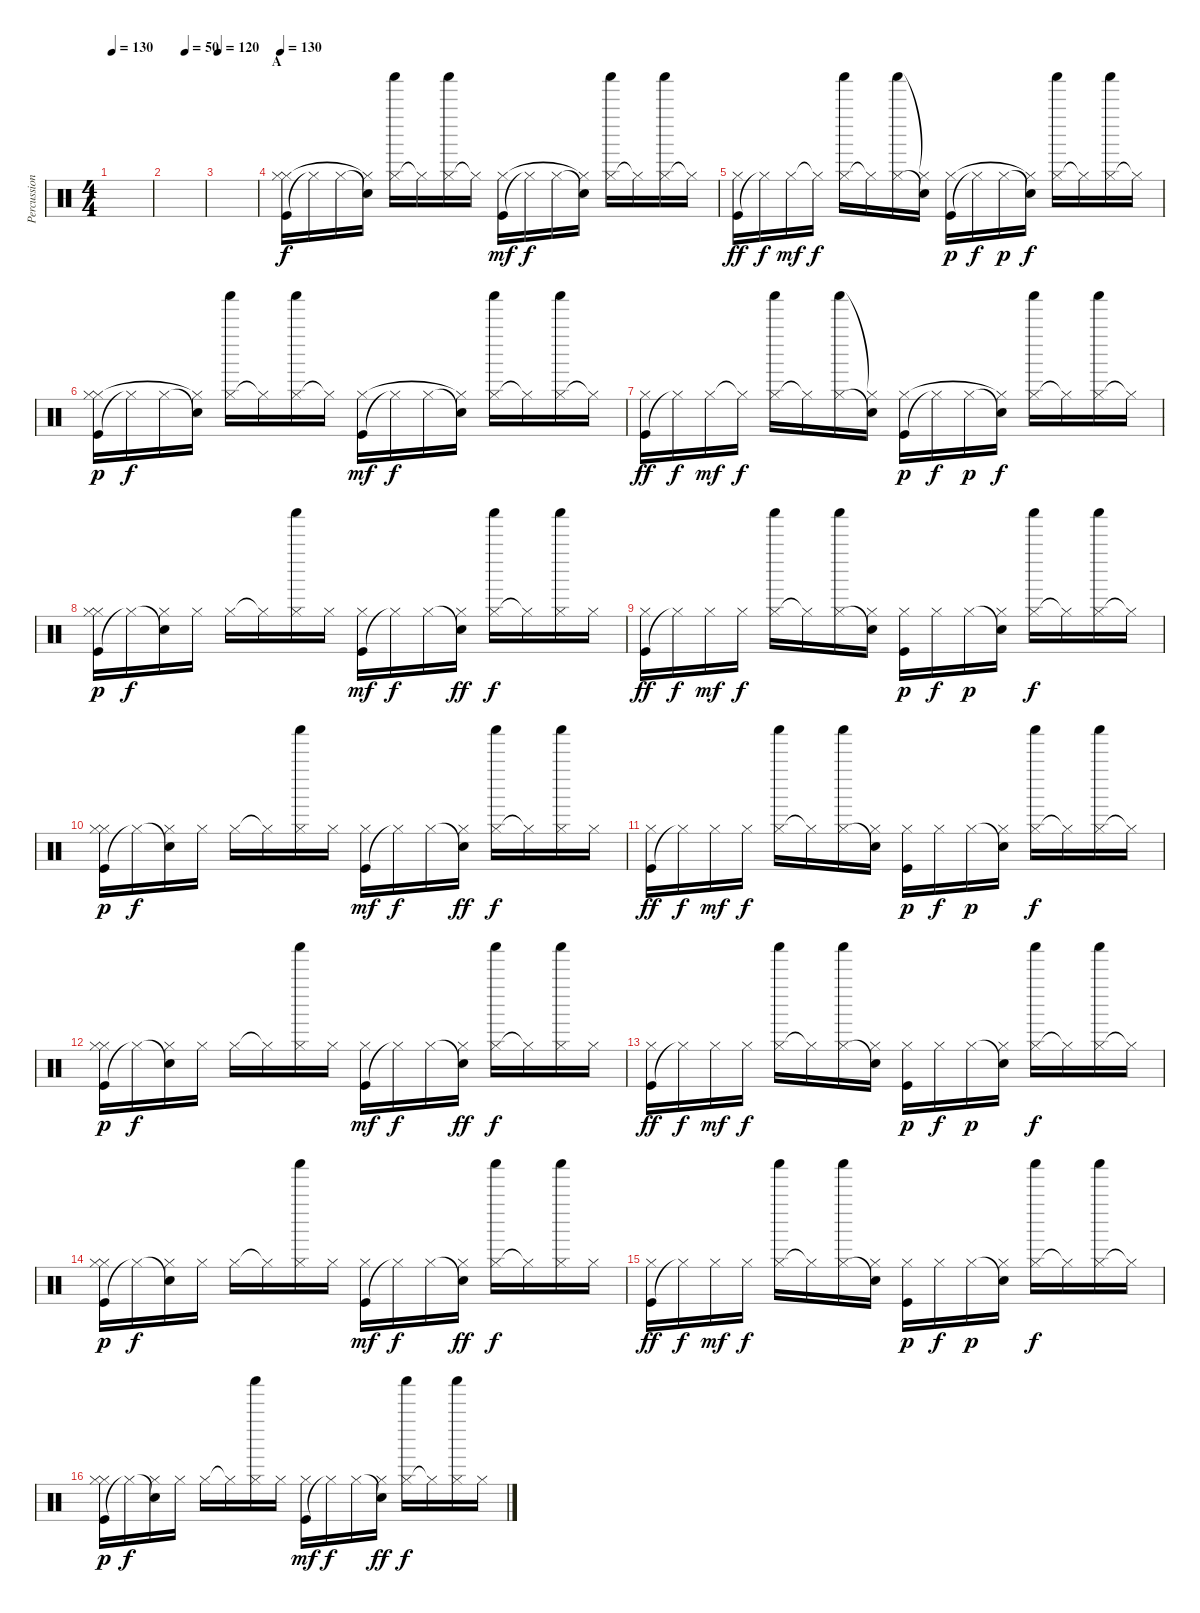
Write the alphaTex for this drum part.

\track ("Percussion" "Percussion") {instrument percussion}
\staff {score}
\articulation defaults
\ts (4 4)
\tempo 130
\tempo 120
\tempo 130
\clef neutral
\ks c
|
\tempo (50 0.5)
|
\tempo 120
|
\section ("" "A")
\tempo 130
("Kick (hit)" "Hi-Hat (closed)" "Hi-Hat (closed)").16 "Hi-Hat (closed)"{t}.16{dy f} "Hi-Hat (closed)".16 ("Snare (hit)"{t} "Hi-Hat (closed)"{t}).16 ("Hi-Hat (closed)" "Shaker (hit)").16 "Hi-Hat (closed)"{t}.16 ("Hi-Hat (closed)" "Shaker (hit)").16 "Hi-Hat (closed)"{t}.16 ("Kick (hit)" "Hi-Hat (closed)").16{dy mf} "Hi-Hat (closed)"{t}.16{dy f} "Hi-Hat (closed)".16 ("Snare (hit)"{t} "Hi-Hat (closed)"{t}).16 ("Hi-Hat (closed)" "Shaker (hit)").16 "Hi-Hat (closed)"{t}.16 ("Hi-Hat (closed)" "Shaker (hit)").16 "Hi-Hat (closed)"{t}.16 |
("Kick (hit)" "Hi-Hat (closed)").16{dy ff} "Hi-Hat (closed)"{t}.16{dy f} "Hi-Hat (closed)".16{dy mf} "Hi-Hat (closed)"{t}.16{dy f} ("Hi-Hat (closed)" "Shaker (hit)").16 "Hi-Hat (closed)"{t}.16 ("Hi-Hat (closed)" "Shaker (hit)").16 ("Snare (hit)"{t} "Hi-Hat (closed)"{t}).16 ("Kick (hit)" "Hi-Hat (closed)").16{dy p} "Hi-Hat (closed)"{t}.16{dy f} "Hi-Hat (closed)".16{dy p} ("Snare (hit)"{t} "Hi-Hat (closed)"{t}).16{dy f} ("Hi-Hat (closed)" "Shaker (hit)").16 "Hi-Hat (closed)"{t}.16 ("Hi-Hat (closed)" "Shaker (hit)").16 "Hi-Hat (closed)"{t}.16 |
("Kick (hit)" "Hi-Hat (closed)" "Hi-Hat (closed)").16{dy p} "Hi-Hat (closed)"{t}.16{dy f} "Hi-Hat (closed)".16 ("Snare (hit)"{t} "Hi-Hat (closed)"{t}).16 ("Hi-Hat (closed)" "Shaker (hit)").16 "Hi-Hat (closed)"{t}.16 ("Hi-Hat (closed)" "Shaker (hit)").16 "Hi-Hat (closed)"{t}.16 ("Kick (hit)" "Hi-Hat (closed)").16{dy mf} "Hi-Hat (closed)"{t}.16{dy f} "Hi-Hat (closed)".16 ("Snare (hit)"{t} "Hi-Hat (closed)"{t}).16 ("Hi-Hat (closed)" "Shaker (hit)").16 "Hi-Hat (closed)"{t}.16 ("Hi-Hat (closed)" "Shaker (hit)").16 "Hi-Hat (closed)"{t}.16 |
("Kick (hit)" "Hi-Hat (closed)").16{dy ff} "Hi-Hat (closed)"{t}.16{dy f} "Hi-Hat (closed)".16{dy mf} "Hi-Hat (closed)"{t}.16{dy f} ("Hi-Hat (closed)" "Shaker (hit)").16 "Hi-Hat (closed)"{t}.16 ("Hi-Hat (closed)" "Shaker (hit)").16 ("Snare (hit)"{t} "Hi-Hat (closed)"{t}).16 ("Kick (hit)" "Hi-Hat (closed)").16{dy p} "Hi-Hat (closed)"{t}.16{dy f} "Hi-Hat (closed)".16{dy p} ("Snare (hit)"{t} "Hi-Hat (closed)"{t}).16{dy f} ("Hi-Hat (closed)" "Shaker (hit)").16 "Hi-Hat (closed)"{t}.16 ("Hi-Hat (closed)" "Shaker (hit)").16 "Hi-Hat (closed)"{t}.16 |
("Kick (hit)" "Hi-Hat (closed)" "Hi-Hat (closed)").16{dy p} "Hi-Hat (closed)"{t}.16{dy f} ("Snare (hit)"{t} "Hi-Hat (closed)").16 "Hi-Hat (closed)".16 "Hi-Hat (closed)".16 "Hi-Hat (closed)"{t}.16 ("Hi-Hat (closed)" "Shaker (hit)").16 "Hi-Hat (closed)".16 ("Kick (hit)" "Hi-Hat (closed)").16{dy mf} "Hi-Hat (closed)"{t}.16{dy f} "Hi-Hat (closed)".16 ("Snare (hit)"{t} "Hi-Hat (closed)").16{dy ff} ("Hi-Hat (closed)" "Shaker (hit)").16{dy f} "Hi-Hat (closed)"{t}.16 ("Hi-Hat (closed)" "Shaker (hit)").16 "Hi-Hat (closed)".16 |
("Kick (hit)" "Hi-Hat (closed)").16{dy ff} "Hi-Hat (closed)"{t}.16{dy f} "Hi-Hat (closed)".16{dy mf} "Hi-Hat (closed)".16{dy f} ("Hi-Hat (closed)" "Shaker (hit)").16 "Hi-Hat (closed)"{t}.16 ("Hi-Hat (closed)" "Shaker (hit)").16 ("Snare (hit)"{t} "Hi-Hat (closed)").16 ("Kick (hit)" "Hi-Hat (closed)").16{dy p} "Hi-Hat (closed)".16{dy f} "Hi-Hat (closed)".16{dy p} ("Snare (hit)"{t} "Hi-Hat (closed)").16 ("Hi-Hat (closed)" "Shaker (hit)").16{dy f} "Hi-Hat (closed)"{t}.16 ("Hi-Hat (closed)" "Shaker (hit)").16 "Hi-Hat (closed)"{t}.16 |
("Kick (hit)" "Hi-Hat (closed)" "Hi-Hat (closed)").16{dy p} "Hi-Hat (closed)"{t}.16{dy f} ("Snare (hit)"{t} "Hi-Hat (closed)").16 "Hi-Hat (closed)".16 "Hi-Hat (closed)".16 "Hi-Hat (closed)"{t}.16 ("Hi-Hat (closed)" "Shaker (hit)").16 "Hi-Hat (closed)".16 ("Kick (hit)" "Hi-Hat (closed)").16{dy mf} "Hi-Hat (closed)"{t}.16{dy f} "Hi-Hat (closed)".16 ("Snare (hit)"{t} "Hi-Hat (closed)").16{dy ff} ("Hi-Hat (closed)" "Shaker (hit)").16{dy f} "Hi-Hat (closed)"{t}.16 ("Hi-Hat (closed)" "Shaker (hit)").16 "Hi-Hat (closed)".16 |
("Kick (hit)" "Hi-Hat (closed)").16{dy ff} "Hi-Hat (closed)"{t}.16{dy f} "Hi-Hat (closed)".16{dy mf} "Hi-Hat (closed)".16{dy f} ("Hi-Hat (closed)" "Shaker (hit)").16 "Hi-Hat (closed)"{t}.16 ("Hi-Hat (closed)" "Shaker (hit)").16 ("Snare (hit)"{t} "Hi-Hat (closed)").16 ("Kick (hit)" "Hi-Hat (closed)").16{dy p} "Hi-Hat (closed)".16{dy f} "Hi-Hat (closed)".16{dy p} ("Snare (hit)"{t} "Hi-Hat (closed)").16 ("Hi-Hat (closed)" "Shaker (hit)").16{dy f} "Hi-Hat (closed)"{t}.16 ("Hi-Hat (closed)" "Shaker (hit)").16 "Hi-Hat (closed)"{t}.16 |
("Kick (hit)" "Hi-Hat (closed)" "Hi-Hat (closed)").16{dy p} "Hi-Hat (closed)"{t}.16{dy f} ("Snare (hit)"{t} "Hi-Hat (closed)").16 "Hi-Hat (closed)".16 "Hi-Hat (closed)".16 "Hi-Hat (closed)"{t}.16 ("Hi-Hat (closed)" "Shaker (hit)").16 "Hi-Hat (closed)".16 ("Kick (hit)" "Hi-Hat (closed)").16{dy mf} "Hi-Hat (closed)"{t}.16{dy f} "Hi-Hat (closed)".16 ("Snare (hit)"{t} "Hi-Hat (closed)").16{dy ff} ("Hi-Hat (closed)" "Shaker (hit)").16{dy f} "Hi-Hat (closed)"{t}.16 ("Hi-Hat (closed)" "Shaker (hit)").16 "Hi-Hat (closed)".16 |
("Kick (hit)" "Hi-Hat (closed)").16{dy ff} "Hi-Hat (closed)"{t}.16{dy f} "Hi-Hat (closed)".16{dy mf} "Hi-Hat (closed)".16{dy f} ("Hi-Hat (closed)" "Shaker (hit)").16 "Hi-Hat (closed)"{t}.16 ("Hi-Hat (closed)" "Shaker (hit)").16 ("Snare (hit)"{t} "Hi-Hat (closed)").16 ("Kick (hit)" "Hi-Hat (closed)").16{dy p} "Hi-Hat (closed)".16{dy f} "Hi-Hat (closed)".16{dy p} ("Snare (hit)"{t} "Hi-Hat (closed)").16 ("Hi-Hat (closed)" "Shaker (hit)").16{dy f} "Hi-Hat (closed)"{t}.16 ("Hi-Hat (closed)" "Shaker (hit)").16 "Hi-Hat (closed)"{t}.16 |
("Kick (hit)" "Hi-Hat (closed)" "Hi-Hat (closed)").16{dy p} "Hi-Hat (closed)"{t}.16{dy f} ("Snare (hit)"{t} "Hi-Hat (closed)").16 "Hi-Hat (closed)".16 "Hi-Hat (closed)".16 "Hi-Hat (closed)"{t}.16 ("Hi-Hat (closed)" "Shaker (hit)").16 "Hi-Hat (closed)".16 ("Kick (hit)" "Hi-Hat (closed)").16{dy mf} "Hi-Hat (closed)"{t}.16{dy f} "Hi-Hat (closed)".16 ("Snare (hit)"{t} "Hi-Hat (closed)").16{dy ff} ("Hi-Hat (closed)" "Shaker (hit)").16{dy f} "Hi-Hat (closed)"{t}.16 ("Hi-Hat (closed)" "Shaker (hit)").16 "Hi-Hat (closed)".16 |
("Kick (hit)" "Hi-Hat (closed)").16{dy ff} "Hi-Hat (closed)"{t}.16{dy f} "Hi-Hat (closed)".16{dy mf} "Hi-Hat (closed)".16{dy f} ("Hi-Hat (closed)" "Shaker (hit)").16 "Hi-Hat (closed)"{t}.16 ("Hi-Hat (closed)" "Shaker (hit)").16 ("Snare (hit)"{t} "Hi-Hat (closed)").16 ("Kick (hit)" "Hi-Hat (closed)").16{dy p} "Hi-Hat (closed)".16{dy f} "Hi-Hat (closed)".16{dy p} ("Snare (hit)"{t} "Hi-Hat (closed)").16 ("Hi-Hat (closed)" "Shaker (hit)").16{dy f} "Hi-Hat (closed)"{t}.16 ("Hi-Hat (closed)" "Shaker (hit)").16 "Hi-Hat (closed)"{t}.16 |
("Kick (hit)" "Hi-Hat (closed)" "Hi-Hat (closed)").16{dy p} "Hi-Hat (closed)"{t}.16{dy f} ("Snare (hit)"{t} "Hi-Hat (closed)").16 "Hi-Hat (closed)".16 "Hi-Hat (closed)".16 "Hi-Hat (closed)"{t}.16 ("Hi-Hat (closed)" "Shaker (hit)").16 "Hi-Hat (closed)".16 ("Kick (hit)" "Hi-Hat (closed)").16{dy mf} "Hi-Hat (closed)"{t}.16{dy f} "Hi-Hat (closed)".16 ("Snare (hit)"{t} "Hi-Hat (closed)").16{dy ff} ("Hi-Hat (closed)" "Shaker (hit)").16{dy f} "Hi-Hat (closed)"{t}.16 ("Hi-Hat (closed)" "Shaker (hit)").16 "Hi-Hat (closed)".16
